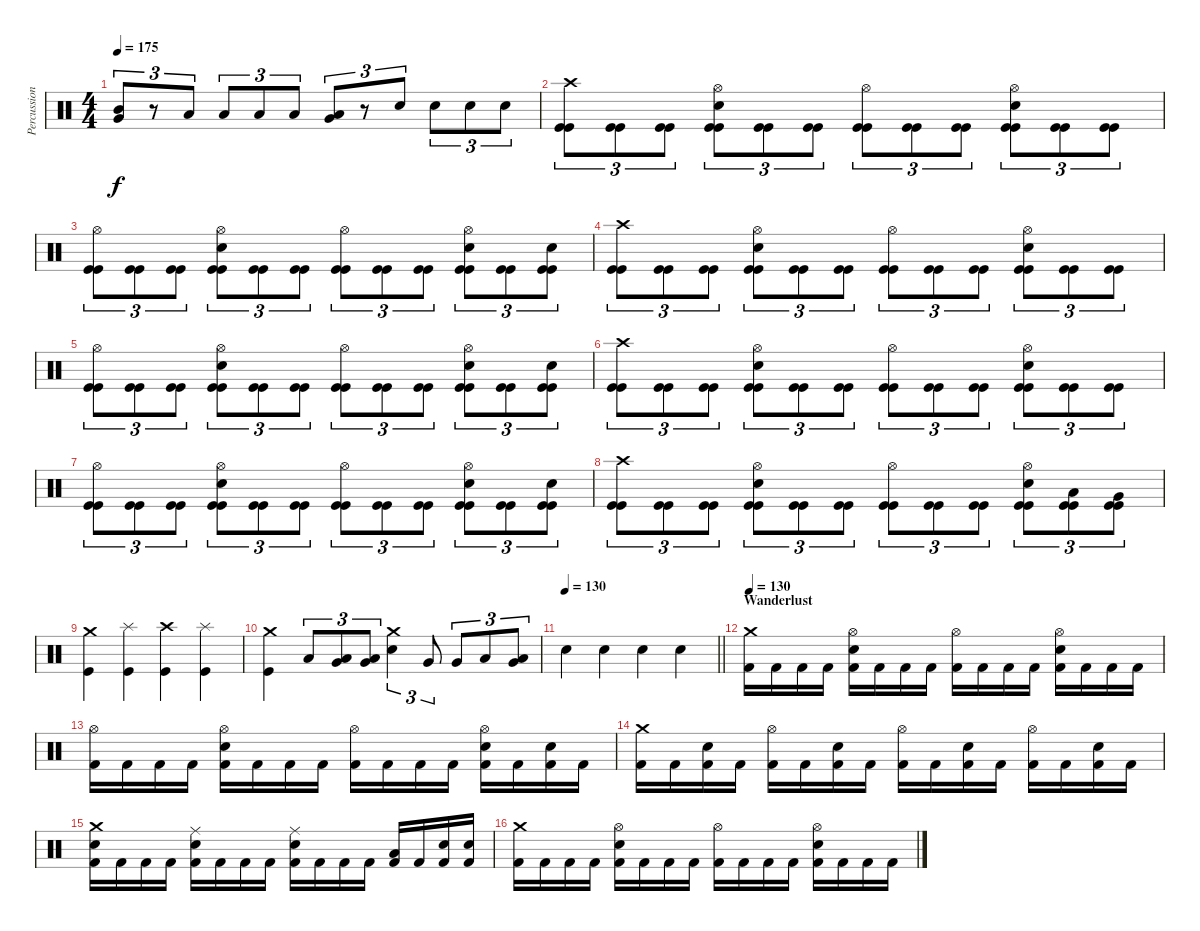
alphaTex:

\track ("Percussion" "Percussion") {instrument percussion}
\staff {score}
\articulation defaults
\ts (4 4)
\tempo 175
\clef neutral
\ks c
("Very Low Tom (hit)" "Mid Tom (hit)").8{tu (3 2) dy f} r.8{tu (3 2)} "Low Floor Tom (hit)".8{tu (3 2)} "Low Floor Tom (hit)".8{tu (3 2)} "Low Floor Tom (hit)".8{tu (3 2)} "Low Floor Tom (hit)".8{tu (3 2)} ("Low Floor Tom (hit)" "Very Low Tom (hit)").8{tu (3 2)} r.8{tu (3 2)} "Snare (hit) 2".8{tu (3 2)} "Snare (hit) 2".8{tu (3 2)} "Snare (hit) 2".8{tu (3 2)} "Snare (hit) 2".8{tu (3 2)} |
("Kick (hit)" "Kick (hit)" "Crash high (hit)").8{tu (3 2)} ("Kick (hit)" "Kick (hit)").8{tu (3 2)} ("Kick (hit)" "Kick (hit)").8{tu (3 2)} ("Kick (hit)" "Kick (hit)" "Snare (hit) 2" "Hi-Hat (open)").8{tu (3 2)} ("Kick (hit)" "Kick (hit)").8{tu (3 2)} ("Kick (hit)" "Kick (hit)").8{tu (3 2)} ("Kick (hit)" "Kick (hit)" "Hi-Hat (open)").8{tu (3 2)} ("Kick (hit)" "Kick (hit)").8{tu (3 2)} ("Kick (hit)" "Kick (hit)").8{tu (3 2)} ("Kick (hit)" "Kick (hit)" "Snare (hit) 2" "Hi-Hat (open)").8{tu (3 2)} ("Kick (hit)" "Kick (hit)").8{tu (3 2)} ("Kick (hit)" "Kick (hit)").8{tu (3 2)} |
("Kick (hit)" "Kick (hit)" "Hi-Hat (open)").8{tu (3 2)} ("Kick (hit)" "Kick (hit)").8{tu (3 2)} ("Kick (hit)" "Kick (hit)").8{tu (3 2)} ("Kick (hit)" "Kick (hit)" "Snare (hit) 2" "Hi-Hat (open)").8{tu (3 2)} ("Kick (hit)" "Kick (hit)").8{tu (3 2)} ("Kick (hit)" "Kick (hit)").8{tu (3 2)} ("Kick (hit)" "Kick (hit)" "Hi-Hat (open)").8{tu (3 2)} ("Kick (hit)" "Kick (hit)").8{tu (3 2)} ("Kick (hit)" "Kick (hit)").8{tu (3 2)} ("Kick (hit)" "Kick (hit)" "Snare (hit) 2" "Hi-Hat (open)").8{tu (3 2)} ("Kick (hit)" "Kick (hit)").8{tu (3 2)} ("Kick (hit)" "Kick (hit)" "Snare (hit) 2").8{tu (3 2)} |
("Kick (hit)" "Kick (hit)" "Crash high (hit)").8{tu (3 2)} ("Kick (hit)" "Kick (hit)").8{tu (3 2)} ("Kick (hit)" "Kick (hit)").8{tu (3 2)} ("Kick (hit)" "Kick (hit)" "Snare (hit) 2" "Hi-Hat (open)").8{tu (3 2)} ("Kick (hit)" "Kick (hit)").8{tu (3 2)} ("Kick (hit)" "Kick (hit)").8{tu (3 2)} ("Kick (hit)" "Kick (hit)" "Hi-Hat (open)").8{tu (3 2)} ("Kick (hit)" "Kick (hit)").8{tu (3 2)} ("Kick (hit)" "Kick (hit)").8{tu (3 2)} ("Kick (hit)" "Kick (hit)" "Snare (hit) 2" "Hi-Hat (open)").8{tu (3 2)} ("Kick (hit)" "Kick (hit)").8{tu (3 2)} ("Kick (hit)" "Kick (hit)").8{tu (3 2)} |
("Kick (hit)" "Kick (hit)" "Hi-Hat (open)").8{tu (3 2)} ("Kick (hit)" "Kick (hit)").8{tu (3 2)} ("Kick (hit)" "Kick (hit)").8{tu (3 2)} ("Kick (hit)" "Kick (hit)" "Snare (hit) 2" "Hi-Hat (open)").8{tu (3 2)} ("Kick (hit)" "Kick (hit)").8{tu (3 2)} ("Kick (hit)" "Kick (hit)").8{tu (3 2)} ("Kick (hit)" "Kick (hit)" "Hi-Hat (open)").8{tu (3 2)} ("Kick (hit)" "Kick (hit)").8{tu (3 2)} ("Kick (hit)" "Kick (hit)").8{tu (3 2)} ("Kick (hit)" "Kick (hit)" "Snare (hit) 2" "Hi-Hat (open)").8{tu (3 2)} ("Kick (hit)" "Kick (hit)").8{tu (3 2)} ("Kick (hit)" "Kick (hit)" "Snare (hit) 2").8{tu (3 2)} |
("Kick (hit)" "Kick (hit)" "Crash high (hit)").8{tu (3 2)} ("Kick (hit)" "Kick (hit)").8{tu (3 2)} ("Kick (hit)" "Kick (hit)").8{tu (3 2)} ("Kick (hit)" "Kick (hit)" "Snare (hit) 2" "Hi-Hat (open)").8{tu (3 2)} ("Kick (hit)" "Kick (hit)").8{tu (3 2)} ("Kick (hit)" "Kick (hit)").8{tu (3 2)} ("Kick (hit)" "Kick (hit)" "Hi-Hat (open)").8{tu (3 2)} ("Kick (hit)" "Kick (hit)").8{tu (3 2)} ("Kick (hit)" "Kick (hit)").8{tu (3 2)} ("Kick (hit)" "Kick (hit)" "Snare (hit) 2" "Hi-Hat (open)").8{tu (3 2)} ("Kick (hit)" "Kick (hit)").8{tu (3 2)} ("Kick (hit)" "Kick (hit)").8{tu (3 2)} |
("Kick (hit)" "Kick (hit)" "Hi-Hat (open)").8{tu (3 2)} ("Kick (hit)" "Kick (hit)").8{tu (3 2)} ("Kick (hit)" "Kick (hit)").8{tu (3 2)} ("Kick (hit)" "Kick (hit)" "Snare (hit) 2" "Hi-Hat (open)").8{tu (3 2)} ("Kick (hit)" "Kick (hit)").8{tu (3 2)} ("Kick (hit)" "Kick (hit)").8{tu (3 2)} ("Kick (hit)" "Kick (hit)" "Hi-Hat (open)").8{tu (3 2)} ("Kick (hit)" "Kick (hit)").8{tu (3 2)} ("Kick (hit)" "Kick (hit)").8{tu (3 2)} ("Kick (hit)" "Kick (hit)" "Snare (hit) 2" "Hi-Hat (open)").8{tu (3 2)} ("Kick (hit)" "Kick (hit)").8{tu (3 2)} ("Kick (hit)" "Kick (hit)" "Snare (hit) 2").8{tu (3 2)} |
("Kick (hit)" "Kick (hit)" "Crash high (hit)").8{tu (3 2)} ("Kick (hit)" "Kick (hit)").8{tu (3 2)} ("Kick (hit)" "Kick (hit)").8{tu (3 2)} ("Kick (hit)" "Kick (hit)" "Snare (hit) 2" "Hi-Hat (open)").8{tu (3 2)} ("Kick (hit)" "Kick (hit)").8{tu (3 2)} ("Kick (hit)" "Kick (hit)").8{tu (3 2)} ("Kick (hit)" "Kick (hit)" "Hi-Hat (open)").8{tu (3 2)} ("Kick (hit)" "Kick (hit)").8{tu (3 2)} ("Kick (hit)" "Kick (hit)").8{tu (3 2)} ("Kick (hit)" "Kick (hit)" "Snare (hit) 2" "Hi-Hat (open)").8{tu (3 2)} ("Kick (hit)" "Kick (hit)" "Low Tom (hit)").8{tu (3 2)} ("Kick (hit)" "Kick (hit)" "Very Low Tom (hit)").8{tu (3 2)} |
("Kick (hit)" "Crash medium (hit)").4 ("Kick (hit)" "Splash (hit)").4 ("Kick (hit)" "Crash high (hit)").4 ("Kick (hit)" "Splash (hit)").4 |
("Kick (hit)" "Crash medium (hit)").4 "Low Tom (hit)".8{tu (3 2)} ("Very Low Tom (hit)" "Low Tom (hit)").8{tu (3 2)} ("Very Low Tom (hit)" "Low Tom (hit)").8{tu (3 2)} ("Electric Snare (hit)" "Crash medium (hit)").4{tu (3 2)} "Very Low Tom (hit)".8{tu (3 2)} "Very Low Tom (hit)".8{tu (3 2)} "Low Tom (hit)".8{tu (3 2)} ("Low Tom (hit)" "Very Low Tom (hit)").8{tu (3 2)} |
\tempo 130
\barLineRight lightlight "Electric Snare (hit)".4 "Electric Snare (hit)".4 "Electric Snare (hit)".4 "Electric Snare (hit)".4
|
\section ("" "Wanderlust")
\tempo 130
("Crash medium (hit)" "Kick (hit) 2").16 "Kick (hit) 2".16 "Kick (hit) 2".16 "Kick (hit) 2".16 ("Hi-Hat (open)" "Electric Snare (hit)" "Kick (hit) 2").16 "Kick (hit) 2".16 "Kick (hit) 2".16 "Kick (hit) 2".16 ("Hi-Hat (open)" "Kick (hit) 2").16 "Kick (hit) 2".16 "Kick (hit) 2".16 "Kick (hit) 2".16 ("Hi-Hat (open)" "Electric Snare (hit)" "Kick (hit) 2").16 "Kick (hit) 2".16 "Kick (hit) 2".16 "Kick (hit) 2".16 |
("Hi-Hat (open)" "Kick (hit) 2").16 "Kick (hit) 2".16 "Kick (hit) 2".16 "Kick (hit) 2".16 ("Hi-Hat (open)" "Electric Snare (hit)" "Kick (hit) 2").16 "Kick (hit) 2".16 "Kick (hit) 2".16 "Kick (hit) 2".16 ("Hi-Hat (open)" "Kick (hit) 2").16 "Kick (hit) 2".16 "Kick (hit) 2".16 "Kick (hit) 2".16 ("Hi-Hat (open)" "Electric Snare (hit)" "Kick (hit) 2").16 "Kick (hit) 2".16 ("Electric Snare (hit)" "Kick (hit) 2").16 "Kick (hit) 2".16 |
("Crash medium (hit)" "Kick (hit) 2").16 "Kick (hit) 2".16 ("Electric Snare (hit)" "Kick (hit) 2").16 "Kick (hit) 2".16 ("Hi-Hat (open)" "Kick (hit) 2").16 "Kick (hit) 2".16 ("Electric Snare (hit)" "Kick (hit) 2").16 "Kick (hit) 2".16 ("Hi-Hat (open)" "Kick (hit) 2").16 "Kick (hit) 2".16 ("Electric Snare (hit)" "Kick (hit) 2").16 "Kick (hit) 2".16 ("Hi-Hat (open)" "Kick (hit) 2").16 "Kick (hit) 2".16 ("Electric Snare (hit)" "Kick (hit) 2").16 "Kick (hit) 2".16 |
("Crash medium (hit)" "Electric Snare (hit)" "Kick (hit) 2").16 "Kick (hit) 2".16 "Kick (hit) 2".16 "Kick (hit) 2".16 ("Ride (middle)" "Electric Snare (hit)" "Kick (hit) 2").16 "Kick (hit) 2".16 "Kick (hit) 2".16 "Kick (hit) 2".16 ("Ride (middle)" "Electric Snare (hit)" "Kick (hit) 2").16 "Kick (hit) 2".16 "Kick (hit) 2".16 "Kick (hit) 2".16 ("Low Tom (hit)" "Kick (hit) 2").16 "Kick (hit) 2".16 ("Electric Snare (hit)" "Kick (hit) 2").16 ("Electric Snare (hit)" "Kick (hit) 2").16 |
("Crash medium (hit)" "Kick (hit) 2").16 "Kick (hit) 2".16 "Kick (hit) 2".16 "Kick (hit) 2".16 ("Hi-Hat (open)" "Electric Snare (hit)" "Kick (hit) 2").16 "Kick (hit) 2".16 "Kick (hit) 2".16 "Kick (hit) 2".16 ("Hi-Hat (open)" "Kick (hit) 2").16 "Kick (hit) 2".16 "Kick (hit) 2".16 "Kick (hit) 2".16 ("Hi-Hat (open)" "Electric Snare (hit)" "Kick (hit) 2").16 "Kick (hit) 2".16 "Kick (hit) 2".16 "Kick (hit) 2".16
